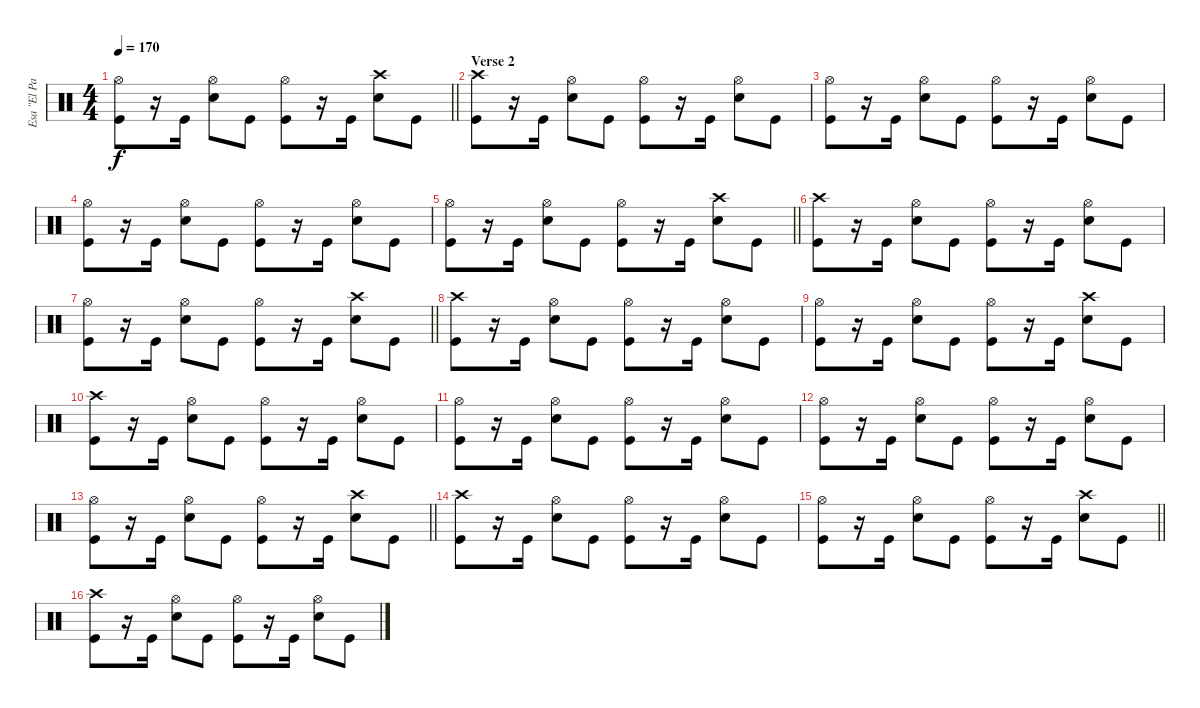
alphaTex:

\track ("Esa \"El Pasaderia\" Palosaari" "Esa \"El Pa") {instrument percussion}
\staff {score}
\articulation defaults
\ts (4 4)
\tempo 170
\clef neutral
\barLineRight lightlight
\ks c
("Hi-Hat (open)" "Kick (hit)").8{dy f} r.16 "Kick (hit)".16 ("Hi-Hat (open)" "Snare (hit) 2").8 "Kick (hit)".8 ("Hi-Hat (open)" "Kick (hit)").8 r.16 "Kick (hit)".16 ("Crash high (hit)" "Snare (hit) 2").8 "Kick (hit)".8 |
\section ("" "Verse 2")
("Crash high (hit)" "Kick (hit)").8 r.16 "Kick (hit)".16 ("Hi-Hat (open)" "Snare (hit) 2").8 "Kick (hit)".8 ("Hi-Hat (open)" "Kick (hit)").8 r.16 "Kick (hit)".16 ("Hi-Hat (open)" "Snare (hit) 2").8 "Kick (hit)".8 |
("Hi-Hat (open)" "Kick (hit)").8 r.16 "Kick (hit)".16 ("Hi-Hat (open)" "Snare (hit) 2").8 "Kick (hit)".8 ("Hi-Hat (open)" "Kick (hit)").8 r.16 "Kick (hit)".16 ("Hi-Hat (open)" "Snare (hit) 2").8 "Kick (hit)".8 |
("Hi-Hat (open)" "Kick (hit)").8 r.16 "Kick (hit)".16 ("Hi-Hat (open)" "Snare (hit) 2").8 "Kick (hit)".8 ("Hi-Hat (open)" "Kick (hit)").8 r.16 "Kick (hit)".16 ("Hi-Hat (open)" "Snare (hit) 2").8 "Kick (hit)".8 |
\barLineRight lightlight
("Hi-Hat (open)" "Kick (hit)").8 r.16 "Kick (hit)".16 ("Hi-Hat (open)" "Snare (hit) 2").8 "Kick (hit)".8 ("Hi-Hat (open)" "Kick (hit)").8 r.16 "Kick (hit)".16 ("Crash high (hit)" "Snare (hit) 2").8 "Kick (hit)".8 |
("Crash high (hit)" "Kick (hit)").8 r.16 "Kick (hit)".16 ("Hi-Hat (open)" "Snare (hit) 2").8 "Kick (hit)".8 ("Hi-Hat (open)" "Kick (hit)").8 r.16 "Kick (hit)".16 ("Hi-Hat (open)" "Snare (hit) 2").8 "Kick (hit)".8 |
\barLineRight lightlight
("Hi-Hat (open)" "Kick (hit)").8 r.16 "Kick (hit)".16 ("Hi-Hat (open)" "Snare (hit) 2").8 "Kick (hit)".8 ("Hi-Hat (open)" "Kick (hit)").8 r.16 "Kick (hit)".16 ("Crash high (hit)" "Snare (hit) 2").8 "Kick (hit)".8 |
("Crash high (hit)" "Kick (hit)").8 r.16 "Kick (hit)".16 ("Hi-Hat (open)" "Snare (hit) 2").8 "Kick (hit)".8 ("Hi-Hat (open)" "Kick (hit)").8 r.16 "Kick (hit)".16 ("Hi-Hat (open)" "Snare (hit) 2").8 "Kick (hit)".8 |
("Hi-Hat (open)" "Kick (hit)").8 r.16 "Kick (hit)".16 ("Hi-Hat (open)" "Snare (hit) 2").8 "Kick (hit)".8 ("Hi-Hat (open)" "Kick (hit)").8 r.16 "Kick (hit)".16 ("Crash high (hit)" "Snare (hit) 2").8 "Kick (hit)".8 |
("Crash high (hit)" "Kick (hit)").8 r.16 "Kick (hit)".16 ("Hi-Hat (open)" "Snare (hit) 2").8 "Kick (hit)".8 ("Hi-Hat (open)" "Kick (hit)").8 r.16 "Kick (hit)".16 ("Hi-Hat (open)" "Snare (hit) 2").8 "Kick (hit)".8 |
("Hi-Hat (open)" "Kick (hit)").8 r.16 "Kick (hit)".16 ("Hi-Hat (open)" "Snare (hit) 2").8 "Kick (hit)".8 ("Hi-Hat (open)" "Kick (hit)").8 r.16 "Kick (hit)".16 ("Hi-Hat (open)" "Snare (hit) 2").8 "Kick (hit)".8 |
("Hi-Hat (open)" "Kick (hit)").8 r.16 "Kick (hit)".16 ("Hi-Hat (open)" "Snare (hit) 2").8 "Kick (hit)".8 ("Hi-Hat (open)" "Kick (hit)").8 r.16 "Kick (hit)".16 ("Hi-Hat (open)" "Snare (hit) 2").8 "Kick (hit)".8 |
\barLineRight lightlight
("Hi-Hat (open)" "Kick (hit)").8 r.16 "Kick (hit)".16 ("Hi-Hat (open)" "Snare (hit) 2").8 "Kick (hit)".8 ("Hi-Hat (open)" "Kick (hit)").8 r.16 "Kick (hit)".16 ("Crash high (hit)" "Snare (hit) 2").8 "Kick (hit)".8 |
("Crash high (hit)" "Kick (hit)").8 r.16 "Kick (hit)".16 ("Hi-Hat (open)" "Snare (hit) 2").8 "Kick (hit)".8 ("Hi-Hat (open)" "Kick (hit)").8 r.16 "Kick (hit)".16 ("Hi-Hat (open)" "Snare (hit) 2").8 "Kick (hit)".8 |
\barLineRight lightlight
("Hi-Hat (open)" "Kick (hit)").8 r.16 "Kick (hit)".16 ("Hi-Hat (open)" "Snare (hit) 2").8 "Kick (hit)".8 ("Hi-Hat (open)" "Kick (hit)").8 r.16 "Kick (hit)".16 ("Crash high (hit)" "Snare (hit) 2").8 "Kick (hit)".8 |
("Crash high (hit)" "Kick (hit)").8 r.16 "Kick (hit)".16 ("Hi-Hat (open)" "Snare (hit) 2").8 "Kick (hit)".8 ("Hi-Hat (open)" "Kick (hit)").8 r.16 "Kick (hit)".16 ("Hi-Hat (open)" "Snare (hit) 2").8 "Kick (hit)".8
